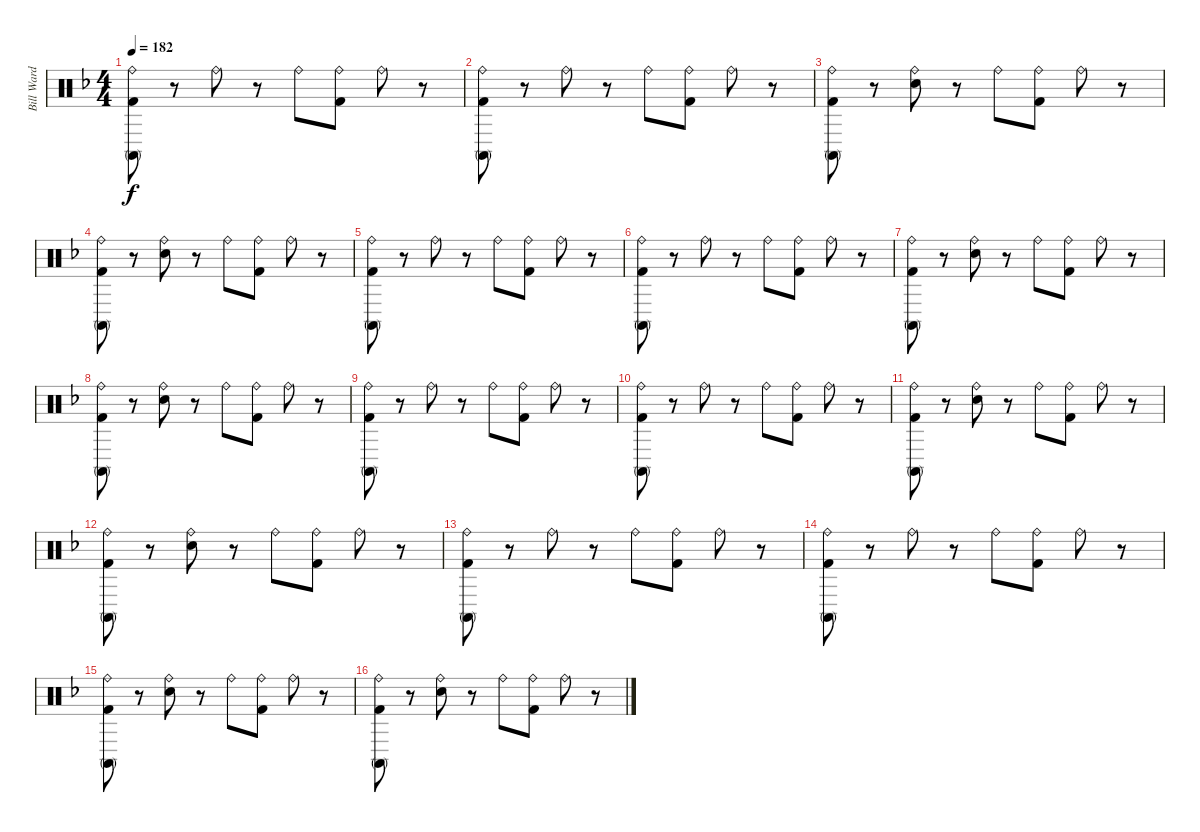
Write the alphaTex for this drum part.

\track ("Bill Ward" "Bill Ward") {instrument percussion}
\staff {score}
\articulation defaults
\ts (4 4)
\tempo 182
\clef neutral
\ks f
("Ride (bell)" "Conga high (mute)" "Kick (hit) 2").8{dy f} r.8 "Ride (bell)".8 r.8 "Ride (bell)".8 ("Ride (bell)" "Kick (hit) 2").8 "Ride (bell)".8 r.8 |
("Ride (bell)" "Conga high (mute)" "Kick (hit) 2").8 r.8 "Ride (bell)".8 r.8 "Ride (bell)".8 ("Ride (bell)" "Kick (hit) 2").8 "Ride (bell)".8 r.8 |
("Ride (bell)" "Conga high (mute)" "Kick (hit) 2").8 r.8 ("Ride (bell)" "Snare (hit) 2").8 r.8 "Ride (bell)".8 ("Ride (bell)" "Kick (hit) 2").8 "Ride (bell)".8 r.8 |
("Ride (bell)" "Conga high (mute)" "Kick (hit) 2").8 r.8 ("Ride (bell)" "Snare (hit) 2").8 r.8 "Ride (bell)".8 ("Ride (bell)" "Kick (hit) 2").8 "Ride (bell)".8 r.8 |
("Ride (bell)" "Conga high (mute)" "Kick (hit) 2").8 r.8 "Ride (bell)".8 r.8 "Ride (bell)".8 ("Ride (bell)" "Kick (hit) 2").8 "Ride (bell)".8 r.8 |
("Ride (bell)" "Conga high (mute)" "Kick (hit) 2").8 r.8 "Ride (bell)".8 r.8 "Ride (bell)".8 ("Ride (bell)" "Kick (hit) 2").8 "Ride (bell)".8 r.8 |
("Ride (bell)" "Conga high (mute)" "Kick (hit) 2").8 r.8 ("Ride (bell)" "Snare (hit) 2").8 r.8 "Ride (bell)".8 ("Ride (bell)" "Kick (hit) 2").8 "Ride (bell)".8 r.8 |
("Ride (bell)" "Conga high (mute)" "Kick (hit) 2").8 r.8 ("Ride (bell)" "Snare (hit) 2").8 r.8 "Ride (bell)".8 ("Ride (bell)" "Kick (hit) 2").8 "Ride (bell)".8 r.8 |
("Ride (bell)" "Conga high (mute)" "Kick (hit) 2").8 r.8 "Ride (bell)".8 r.8 "Ride (bell)".8 ("Ride (bell)" "Kick (hit) 2").8 "Ride (bell)".8 r.8 |
("Ride (bell)" "Conga high (mute)" "Kick (hit) 2").8 r.8 "Ride (bell)".8 r.8 "Ride (bell)".8 ("Ride (bell)" "Kick (hit) 2").8 "Ride (bell)".8 r.8 |
("Ride (bell)" "Conga high (mute)" "Kick (hit) 2").8 r.8 ("Ride (bell)" "Snare (hit) 2").8 r.8 "Ride (bell)".8 ("Ride (bell)" "Kick (hit) 2").8 "Ride (bell)".8 r.8 |
("Ride (bell)" "Conga high (mute)" "Kick (hit) 2").8 r.8 ("Ride (bell)" "Snare (hit) 2").8 r.8 "Ride (bell)".8 ("Ride (bell)" "Kick (hit) 2").8 "Ride (bell)".8 r.8 |
("Ride (bell)" "Conga high (mute)" "Kick (hit) 2").8 r.8 "Ride (bell)".8 r.8 "Ride (bell)".8 ("Ride (bell)" "Kick (hit) 2").8 "Ride (bell)".8 r.8 |
("Ride (bell)" "Conga high (mute)" "Kick (hit) 2").8 r.8 "Ride (bell)".8 r.8 "Ride (bell)".8 ("Ride (bell)" "Kick (hit) 2").8 "Ride (bell)".8 r.8 |
("Ride (bell)" "Conga high (mute)" "Kick (hit) 2").8 r.8 ("Ride (bell)" "Snare (hit) 2").8 r.8 "Ride (bell)".8 ("Ride (bell)" "Kick (hit) 2").8 "Ride (bell)".8 r.8 |
("Ride (bell)" "Conga high (mute)" "Kick (hit) 2").8 r.8 ("Ride (bell)" "Snare (hit) 2").8 r.8 "Ride (bell)".8 ("Ride (bell)" "Kick (hit) 2").8 "Ride (bell)".8 r.8
